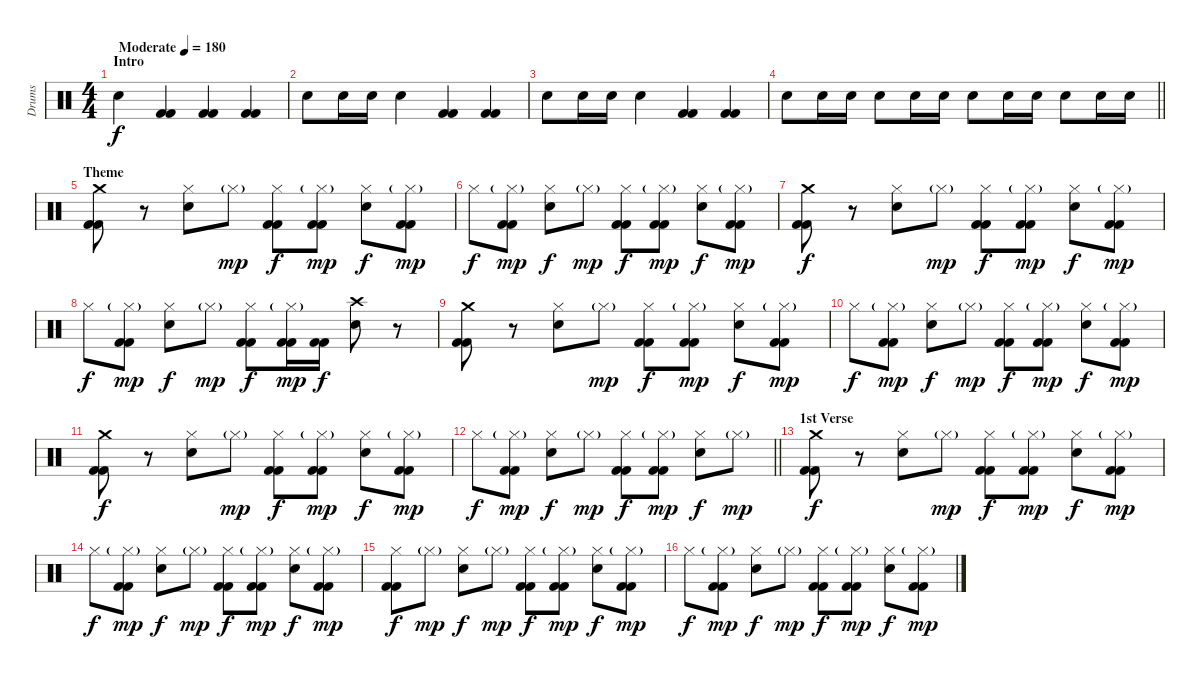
\track ("Drums" "Drums") {instrument percussion}
\staff {score}
\articulation defaults
\ts (4 4)
\section ("" "Intro")
\tempo (180 "Moderate")
\clef neutral
\ks c "Snare (hit) 2".4{dy f}
("Kick (hit) 2" "Kick (hit) 2").4 ("Kick (hit) 2" "Kick (hit) 2").4 ("Kick (hit) 2" "Kick (hit) 2").4 |
"Snare (hit) 2".8 "Snare (hit) 2".16 "Snare (hit) 2".16 "Snare (hit) 2".4 ("Kick (hit) 2" "Kick (hit) 2").4 ("Kick (hit) 2" "Kick (hit) 2").4 |
"Snare (hit) 2".8 "Snare (hit) 2".16 "Snare (hit) 2".16 "Snare (hit) 2".4 ("Kick (hit) 2" "Kick (hit) 2").4 ("Kick (hit) 2" "Kick (hit) 2").4 |
\barLineRight lightlight "Snare (hit) 2".8 "Snare (hit) 2".16 "Snare (hit) 2".16 "Snare (hit) 2".8 "Snare (hit) 2".16 "Snare (hit) 2".16 "Snare (hit) 2".8 "Snare (hit) 2".16 "Snare (hit) 2".16 "Snare (hit) 2".8 "Snare (hit) 2".16 "Snare (hit) 2".16
|
\section ("" "Theme")
("Crash medium (hit)" "Kick (hit) 2" "Kick (hit) 2").8 r.8 ("Hi-Hat (closed)" "Snare (hit) 2").8 "Hi-Hat (closed)"{g}.8{dy mp} ("Hi-Hat (closed)" "Kick (hit) 2" "Kick (hit) 2").8{dy f} ("Hi-Hat (closed)"{g} "Kick (hit) 2" "Kick (hit) 2").8{dy mp} ("Hi-Hat (closed)" "Snare (hit) 2").8{dy f} ("Hi-Hat (closed)"{g} "Kick (hit) 2" "Kick (hit) 2").8{dy mp} |
"Hi-Hat (closed)".8{dy f} ("Hi-Hat (closed)"{g} "Kick (hit) 2" "Kick (hit) 2").8{dy mp} ("Hi-Hat (closed)" "Snare (hit) 2").8{dy f} "Hi-Hat (closed)"{g}.8{dy mp} ("Hi-Hat (closed)" "Kick (hit) 2" "Kick (hit) 2").8{dy f} ("Hi-Hat (closed)"{g} "Kick (hit) 2" "Kick (hit) 2").8{dy mp} ("Hi-Hat (closed)" "Snare (hit) 2").8{dy f} ("Hi-Hat (closed)"{g} "Kick (hit) 2" "Kick (hit) 2").8{dy mp} |
("Crash medium (hit)" "Kick (hit) 2" "Kick (hit) 2").8{dy f} r.8 ("Hi-Hat (closed)" "Snare (hit) 2").8 "Hi-Hat (closed)"{g}.8{dy mp} ("Hi-Hat (closed)" "Kick (hit) 2" "Kick (hit) 2").8{dy f} ("Hi-Hat (closed)"{g} "Kick (hit) 2" "Kick (hit) 2").8{dy mp} ("Hi-Hat (closed)" "Snare (hit) 2").8{dy f} ("Hi-Hat (closed)"{g} "Kick (hit) 2" "Kick (hit) 2").8{dy mp} |
"Hi-Hat (closed)".8{dy f} ("Hi-Hat (closed)"{g} "Kick (hit) 2" "Kick (hit) 2").8{dy mp} ("Hi-Hat (closed)" "Snare (hit) 2").8{dy f} "Hi-Hat (closed)"{g}.8{dy mp} ("Hi-Hat (closed)" "Kick (hit) 2" "Kick (hit) 2").8{dy f} ("Hi-Hat (closed)"{g} "Kick (hit) 2" "Kick (hit) 2").16{dy mp} ("Kick (hit) 2" "Kick (hit) 2").16{dy f} ("Crash high (hit)" "Snare (hit) 2").8 r.8 |
("Crash medium (hit)" "Kick (hit) 2" "Kick (hit) 2").8 r.8 ("Hi-Hat (closed)" "Snare (hit) 2").8 "Hi-Hat (closed)"{g}.8{dy mp} ("Hi-Hat (closed)" "Kick (hit) 2" "Kick (hit) 2").8{dy f} ("Hi-Hat (closed)"{g} "Kick (hit) 2" "Kick (hit) 2").8{dy mp} ("Hi-Hat (closed)" "Snare (hit) 2").8{dy f} ("Hi-Hat (closed)"{g} "Kick (hit) 2" "Kick (hit) 2").8{dy mp} |
"Hi-Hat (closed)".8{dy f} ("Hi-Hat (closed)"{g} "Kick (hit) 2" "Kick (hit) 2").8{dy mp} ("Hi-Hat (closed)" "Snare (hit) 2").8{dy f} "Hi-Hat (closed)"{g}.8{dy mp} ("Hi-Hat (closed)" "Kick (hit) 2" "Kick (hit) 2").8{dy f} ("Hi-Hat (closed)"{g} "Kick (hit) 2" "Kick (hit) 2").8{dy mp} ("Hi-Hat (closed)" "Snare (hit) 2").8{dy f} ("Hi-Hat (closed)"{g} "Kick (hit) 2" "Kick (hit) 2").8{dy mp} |
("Crash medium (hit)" "Kick (hit) 2" "Kick (hit) 2").8{dy f} r.8 ("Hi-Hat (closed)" "Snare (hit) 2").8 "Hi-Hat (closed)"{g}.8{dy mp} ("Hi-Hat (closed)" "Kick (hit) 2" "Kick (hit) 2").8{dy f} ("Hi-Hat (closed)"{g} "Kick (hit) 2" "Kick (hit) 2").8{dy mp} ("Hi-Hat (closed)" "Snare (hit) 2").8{dy f} ("Hi-Hat (closed)"{g} "Kick (hit) 2" "Kick (hit) 2").8{dy mp} |
\barLineRight lightlight "Hi-Hat (closed)".8{dy f}
("Hi-Hat (closed)"{g} "Kick (hit) 2" "Kick (hit) 2").8{dy mp} ("Hi-Hat (closed)" "Snare (hit) 2").8{dy f} "Hi-Hat (closed)"{g}.8{dy mp} ("Hi-Hat (closed)" "Kick (hit) 2" "Kick (hit) 2").8{dy f} ("Hi-Hat (closed)"{g} "Kick (hit) 2" "Kick (hit) 2").8{dy mp} ("Hi-Hat (closed)" "Snare (hit) 2").8{dy f} "Hi-Hat (closed)"{g}.8{dy mp} |
\section ("" "1st Verse")
("Crash medium (hit)" "Kick (hit) 2" "Kick (hit) 2").8{dy f} r.8 ("Hi-Hat (closed)" "Snare (hit) 2").8 "Hi-Hat (closed)"{g}.8{dy mp} ("Hi-Hat (closed)" "Kick (hit) 2" "Kick (hit) 2").8{dy f} ("Hi-Hat (closed)"{g} "Kick (hit) 2" "Kick (hit) 2").8{dy mp} ("Hi-Hat (closed)" "Snare (hit) 2").8{dy f} ("Hi-Hat (closed)"{g} "Kick (hit) 2" "Kick (hit) 2").8{dy mp} |
"Hi-Hat (closed)".8{dy f} ("Hi-Hat (closed)"{g} "Kick (hit) 2" "Kick (hit) 2").8{dy mp} ("Hi-Hat (closed)" "Snare (hit) 2").8{dy f} "Hi-Hat (closed)"{g}.8{dy mp} ("Hi-Hat (closed)" "Kick (hit) 2" "Kick (hit) 2").8{dy f} ("Hi-Hat (closed)"{g} "Kick (hit) 2" "Kick (hit) 2").8{dy mp} ("Hi-Hat (closed)" "Snare (hit) 2").8{dy f} ("Hi-Hat (closed)"{g} "Kick (hit) 2" "Kick (hit) 2").8{dy mp} |
("Hi-Hat (closed)" "Kick (hit) 2" "Kick (hit) 2").8{dy f} "Hi-Hat (closed)"{g}.8{dy mp} ("Hi-Hat (closed)" "Snare (hit) 2").8{dy f} "Hi-Hat (closed)"{g}.8{dy mp} ("Hi-Hat (closed)" "Kick (hit) 2" "Kick (hit) 2").8{dy f} ("Hi-Hat (closed)"{g} "Kick (hit) 2" "Kick (hit) 2").8{dy mp} ("Hi-Hat (closed)" "Snare (hit) 2").8{dy f} ("Hi-Hat (closed)"{g} "Kick (hit) 2" "Kick (hit) 2").8{dy mp} |
"Hi-Hat (closed)".8{dy f} ("Hi-Hat (closed)"{g} "Kick (hit) 2" "Kick (hit) 2").8{dy mp} ("Hi-Hat (closed)" "Snare (hit) 2").8{dy f} "Hi-Hat (closed)"{g}.8{dy mp} ("Hi-Hat (closed)" "Kick (hit) 2" "Kick (hit) 2").8{dy f} ("Hi-Hat (closed)"{g} "Kick (hit) 2" "Kick (hit) 2").8{dy mp} ("Hi-Hat (closed)" "Snare (hit) 2").8{dy f} ("Hi-Hat (closed)"{g} "Kick (hit) 2" "Kick (hit) 2").8{dy mp}
